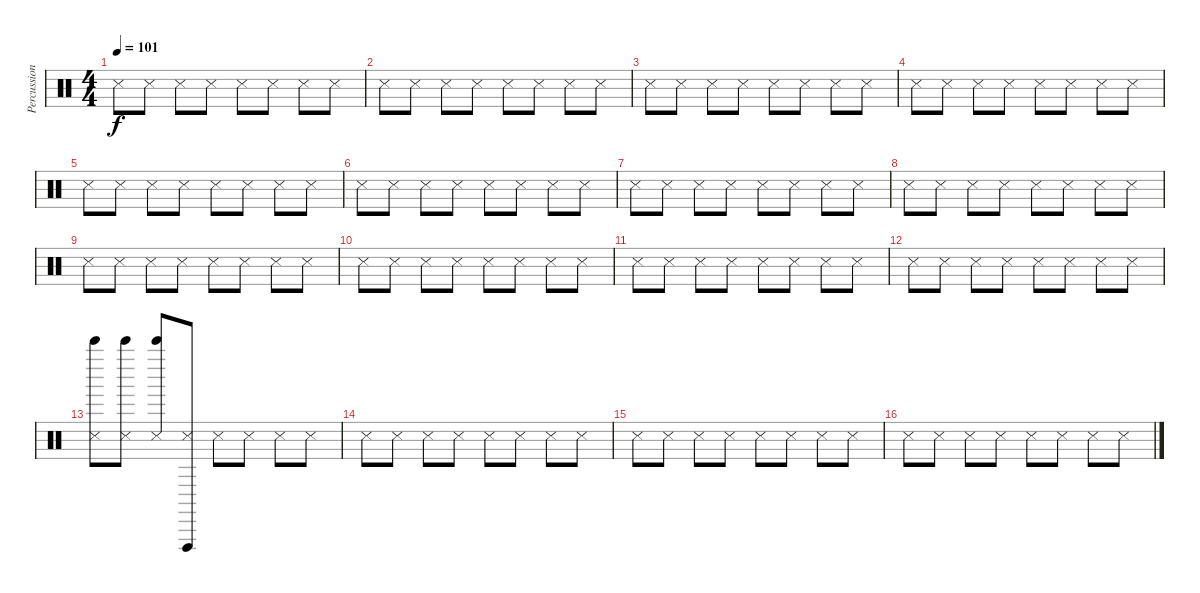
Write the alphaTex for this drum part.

\track ("Percussions" "Percussion") {instrument percussion}
\staff {score}
\articulation defaults
\ts (4 4)
\tempo 101
\clef neutral
\ks c "Metronome (hit)".8{dy f} "Metronome (hit)".8 "Metronome (hit)".8 "Metronome (hit)".8 "Metronome (hit)".8 "Metronome (hit)".8 "Metronome (hit)".8 "Metronome (hit)".8
|
"Metronome (hit)".8 "Metronome (hit)".8 "Metronome (hit)".8 "Metronome (hit)".8 "Metronome (hit)".8 "Metronome (hit)".8 "Metronome (hit)".8 "Metronome (hit)".8 |
"Metronome (hit)".8 "Metronome (hit)".8 "Metronome (hit)".8 "Metronome (hit)".8 "Metronome (hit)".8 "Metronome (hit)".8 "Metronome (hit)".8 "Metronome (hit)".8 |
"Metronome (hit)".8 "Metronome (hit)".8 "Metronome (hit)".8 "Metronome (hit)".8 "Metronome (hit)".8 "Metronome (hit)".8 "Metronome (hit)".8 "Metronome (hit)".8 |
"Metronome (hit)".8 "Metronome (hit)".8 "Metronome (hit)".8 "Metronome (hit)".8 "Metronome (hit)".8 "Metronome (hit)".8 "Metronome (hit)".8 "Metronome (hit)".8 |
"Metronome (hit)".8 "Metronome (hit)".8 "Metronome (hit)".8 "Metronome (hit)".8 "Metronome (hit)".8 "Metronome (hit)".8 "Metronome (hit)".8 "Metronome (hit)".8 |
"Metronome (hit)".8 "Metronome (hit)".8 "Metronome (hit)".8 "Metronome (hit)".8 "Metronome (hit)".8 "Metronome (hit)".8 "Metronome (hit)".8 "Metronome (hit)".8 |
"Metronome (hit)".8 "Metronome (hit)".8 "Metronome (hit)".8 "Metronome (hit)".8 "Metronome (hit)".8 "Metronome (hit)".8 "Metronome (hit)".8 "Metronome (hit)".8 |
"Metronome (hit)".8 "Metronome (hit)".8 "Metronome (hit)".8 "Metronome (hit)".8 "Metronome (hit)".8 "Metronome (hit)".8 "Metronome (hit)".8 "Metronome (hit)".8 |
"Metronome (hit)".8 "Metronome (hit)".8 "Metronome (hit)".8 "Metronome (hit)".8 "Metronome (hit)".8 "Metronome (hit)".8 "Metronome (hit)".8 "Metronome (hit)".8 |
"Metronome (hit)".8 "Metronome (hit)".8 "Metronome (hit)".8 "Metronome (hit)".8 "Metronome (hit)".8 "Metronome (hit)".8 "Metronome (hit)".8 "Metronome (hit)".8 |
"Metronome (hit)".8 "Metronome (hit)".8 "Metronome (hit)".8 "Metronome (hit)".8 "Metronome (hit)".8 "Metronome (hit)".8 "Metronome (hit)".8 "Metronome (hit)".8 |
("Metronome (hit)" "Bell Tree (hit)").8 ("Metronome (hit)" "Bell Tree (hit)").8 ("Metronome (hit)" "Bell Tree (hit)").8 ("Metronome (hit)" "Vibraslap (hit)").8 "Metronome (hit)".8 "Metronome (hit)".8 "Metronome (hit)".8 "Metronome (hit)".8 |
"Metronome (hit)".8 "Metronome (hit)".8 "Metronome (hit)".8 "Metronome (hit)".8 "Metronome (hit)".8 "Metronome (hit)".8 "Metronome (hit)".8 "Metronome (hit)".8 |
"Metronome (hit)".8 "Metronome (hit)".8 "Metronome (hit)".8 "Metronome (hit)".8 "Metronome (hit)".8 "Metronome (hit)".8 "Metronome (hit)".8 "Metronome (hit)".8 |
"Metronome (hit)".8 "Metronome (hit)".8 "Metronome (hit)".8 "Metronome (hit)".8 "Metronome (hit)".8 "Metronome (hit)".8 "Metronome (hit)".8 "Metronome (hit)".8
